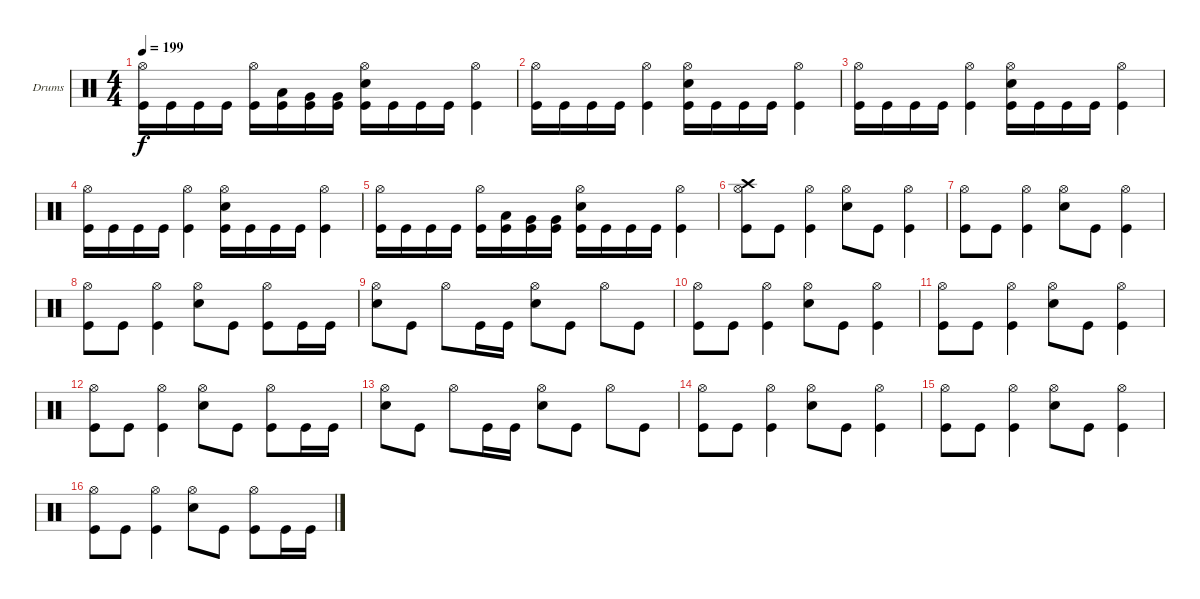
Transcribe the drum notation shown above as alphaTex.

\bracketExtendMode groupsimilarinstruments
\firstSystemTrackNameOrientation horizontal
\otherSystemsTrackNameOrientation horizontal
\track ("Drumkit" "Drums") {instrument percussion}
\staff {score}
\articulation defaults
\ts (4 4)
\tempo 199
\clef neutral
\ks c
("Hi-Hat (open)" "Kick (hit)").16{dy f} "Kick (hit)".16 "Kick (hit)".16 "Kick (hit)".16 ("Hi-Hat (open)" "Kick (hit)").16 ("Kick (hit)" "Low Tom (hit)").16 ("Kick (hit)" "Very Low Tom (hit)").16 ("Kick (hit)" "Very Low Tom (hit)").16 ("Hi-Hat (open)" "Kick (hit)" "Snare (hit) 2").16 "Kick (hit)".16 "Kick (hit)".16 "Kick (hit)".16 ("Hi-Hat (open)" "Kick (hit)").4 |
("Hi-Hat (open)" "Kick (hit)").16 "Kick (hit)".16 "Kick (hit)".16 "Kick (hit)".16 ("Hi-Hat (open)" "Kick (hit)").4 ("Hi-Hat (open)" "Kick (hit)" "Snare (hit) 2").16 "Kick (hit)".16 "Kick (hit)".16 "Kick (hit)".16 ("Hi-Hat (open)" "Kick (hit)").4 |
("Hi-Hat (open)" "Kick (hit)").16 "Kick (hit)".16 "Kick (hit)".16 "Kick (hit)".16 ("Hi-Hat (open)" "Kick (hit)").4 ("Hi-Hat (open)" "Kick (hit)" "Snare (hit) 2").16 "Kick (hit)".16 "Kick (hit)".16 "Kick (hit)".16 ("Hi-Hat (open)" "Kick (hit)").4 |
("Hi-Hat (open)" "Kick (hit)").16 "Kick (hit)".16 "Kick (hit)".16 "Kick (hit)".16 ("Hi-Hat (open)" "Kick (hit)").4 ("Hi-Hat (open)" "Kick (hit)" "Snare (hit) 2").16 "Kick (hit)".16 "Kick (hit)".16 "Kick (hit)".16 ("Hi-Hat (open)" "Kick (hit)").4 |
("Hi-Hat (open)" "Kick (hit)").16 "Kick (hit)".16 "Kick (hit)".16 "Kick (hit)".16 ("Hi-Hat (open)" "Kick (hit)").16 ("Kick (hit)" "Low Tom (hit)").16 ("Kick (hit)" "Very Low Tom (hit)").16 ("Kick (hit)" "Very Low Tom (hit)").16 ("Hi-Hat (open)" "Kick (hit)" "Snare (hit) 2").16 "Kick (hit)".16 "Kick (hit)".16 "Kick (hit)".16 ("Hi-Hat (open)" "Kick (hit)").4 |
("Hi-Hat (open)" "Kick (hit)" "Crash high (hit)").8 "Kick (hit)".8 ("Hi-Hat (open)" "Kick (hit)").4 ("Hi-Hat (open)" "Snare (hit) 2").8 "Kick (hit)".8 ("Hi-Hat (open)" "Kick (hit)").4 |
("Hi-Hat (open)" "Kick (hit)").8 "Kick (hit)".8 ("Hi-Hat (open)" "Kick (hit)").4 ("Hi-Hat (open)" "Snare (hit) 2").8 "Kick (hit)".8 ("Hi-Hat (open)" "Kick (hit)").4 |
("Hi-Hat (open)" "Kick (hit)").8 "Kick (hit)".8 ("Hi-Hat (open)" "Kick (hit)").4 ("Hi-Hat (open)" "Snare (hit) 2").8 "Kick (hit)".8 ("Hi-Hat (open)" "Kick (hit)").8 "Kick (hit)".16 "Kick (hit)".16 |
("Hi-Hat (open)" "Snare (hit) 2").8 "Kick (hit)".8 "Hi-Hat (open)".8 "Kick (hit)".16 "Kick (hit)".16 ("Hi-Hat (open)" "Snare (hit) 2").8 "Kick (hit)".8 "Hi-Hat (open)".8 "Kick (hit)".8 |
("Hi-Hat (open)" "Kick (hit)").8 "Kick (hit)".8 ("Hi-Hat (open)" "Kick (hit)").4 ("Hi-Hat (open)" "Snare (hit) 2").8 "Kick (hit)".8 ("Hi-Hat (open)" "Kick (hit)").4 |
("Hi-Hat (open)" "Kick (hit)").8 "Kick (hit)".8 ("Hi-Hat (open)" "Kick (hit)").4 ("Hi-Hat (open)" "Snare (hit) 2").8 "Kick (hit)".8 ("Hi-Hat (open)" "Kick (hit)").4 |
("Hi-Hat (open)" "Kick (hit)").8 "Kick (hit)".8 ("Hi-Hat (open)" "Kick (hit)").4 ("Hi-Hat (open)" "Snare (hit) 2").8 "Kick (hit)".8 ("Hi-Hat (open)" "Kick (hit)").8 "Kick (hit)".16 "Kick (hit)".16 |
("Hi-Hat (open)" "Snare (hit) 2").8 "Kick (hit)".8 "Hi-Hat (open)".8 "Kick (hit)".16 "Kick (hit)".16 ("Hi-Hat (open)" "Snare (hit) 2").8 "Kick (hit)".8 "Hi-Hat (open)".8 "Kick (hit)".8 |
("Hi-Hat (open)" "Kick (hit)").8 "Kick (hit)".8 ("Hi-Hat (open)" "Kick (hit)").4 ("Hi-Hat (open)" "Snare (hit) 2").8 "Kick (hit)".8 ("Hi-Hat (open)" "Kick (hit)").4 |
("Hi-Hat (open)" "Kick (hit)").8 "Kick (hit)".8 ("Hi-Hat (open)" "Kick (hit)").4 ("Hi-Hat (open)" "Snare (hit) 2").8 "Kick (hit)".8 ("Hi-Hat (open)" "Kick (hit)").4 |
("Hi-Hat (open)" "Kick (hit)").8 "Kick (hit)".8 ("Hi-Hat (open)" "Kick (hit)").4 ("Hi-Hat (open)" "Snare (hit) 2").8 "Kick (hit)".8 ("Hi-Hat (open)" "Kick (hit)").8 "Kick (hit)".16 "Kick (hit)".16
